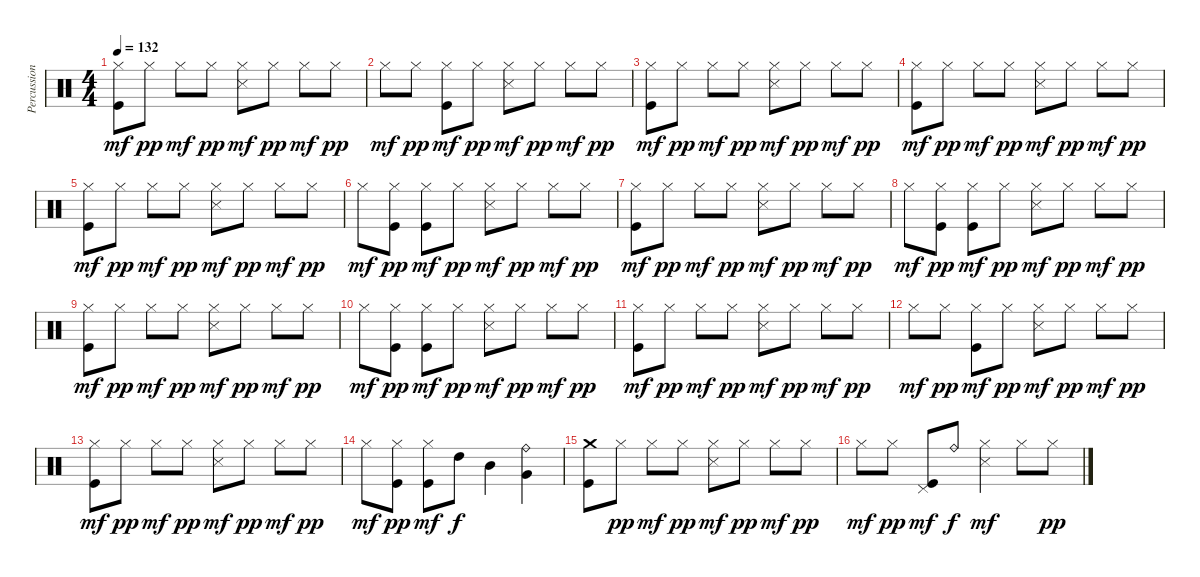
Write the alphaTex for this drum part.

\track ("Percussion" "Percussion") {instrument percussion}
\staff {score}
\articulation defaults
\ts (4 4)
\tempo 132
\clef neutral
\ks c
("Hi-Hat (closed)" "Kick (hit)").8{dy mf} "Hi-Hat (closed)".8{dy pp} "Hi-Hat (closed)".8{dy mf} "Hi-Hat (closed)".8{dy pp} ("Hi-Hat (closed)" "Snare (side stick) 3").8{dy mf} "Hi-Hat (closed)".8{dy pp} "Hi-Hat (closed)".8{dy mf} "Hi-Hat (closed)".8{dy pp} |
"Hi-Hat (closed)".8{dy mf} "Hi-Hat (closed)".8{dy pp} ("Hi-Hat (closed)" "Kick (hit)").8{dy mf} "Hi-Hat (closed)".8{dy pp} ("Hi-Hat (closed)" "Snare (side stick) 3").8{dy mf} "Hi-Hat (closed)".8{dy pp} "Hi-Hat (closed)".8{dy mf} "Hi-Hat (closed)".8{dy pp} |
("Hi-Hat (closed)" "Kick (hit)").8{dy mf} "Hi-Hat (closed)".8{dy pp} "Hi-Hat (closed)".8{dy mf} "Hi-Hat (closed)".8{dy pp} ("Hi-Hat (closed)" "Snare (side stick) 3").8{dy mf} "Hi-Hat (closed)".8{dy pp} "Hi-Hat (closed)".8{dy mf} "Hi-Hat (closed)".8{dy pp} |
("Hi-Hat (closed)" "Kick (hit)").8{dy mf} "Hi-Hat (closed)".8{dy pp} "Hi-Hat (closed)".8{dy mf} "Hi-Hat (closed)".8{dy pp} ("Hi-Hat (closed)" "Snare (side stick) 3").8{dy mf} "Hi-Hat (closed)".8{dy pp} "Hi-Hat (closed)".8{dy mf} "Hi-Hat (closed)".8{dy pp} |
("Hi-Hat (closed)" "Kick (hit)").8{dy mf} "Hi-Hat (closed)".8{dy pp} "Hi-Hat (closed)".8{dy mf} "Hi-Hat (closed)".8{dy pp} ("Hi-Hat (closed)" "Snare (side stick) 3").8{dy mf} "Hi-Hat (closed)".8{dy pp} "Hi-Hat (closed)".8{dy mf} "Hi-Hat (closed)".8{dy pp} |
"Hi-Hat (closed)".8{dy mf} ("Hi-Hat (closed)" "Kick (hit)").8{dy pp} ("Hi-Hat (closed)" "Kick (hit)").8{dy mf} "Hi-Hat (closed)".8{dy pp} ("Hi-Hat (closed)" "Snare (side stick) 3").8{dy mf} "Hi-Hat (closed)".8{dy pp} "Hi-Hat (closed)".8{dy mf} "Hi-Hat (closed)".8{dy pp} |
("Hi-Hat (closed)" "Kick (hit)").8{dy mf} "Hi-Hat (closed)".8{dy pp} "Hi-Hat (closed)".8{dy mf} "Hi-Hat (closed)".8{dy pp} ("Hi-Hat (closed)" "Snare (side stick) 3").8{dy mf} "Hi-Hat (closed)".8{dy pp} "Hi-Hat (closed)".8{dy mf} "Hi-Hat (closed)".8{dy pp} |
"Hi-Hat (closed)".8{dy mf} ("Hi-Hat (closed)" "Kick (hit)").8{dy pp} ("Hi-Hat (closed)" "Kick (hit)").8{dy mf} "Hi-Hat (closed)".8{dy pp} ("Hi-Hat (closed)" "Snare (side stick) 3").8{dy mf} "Hi-Hat (closed)".8{dy pp} "Hi-Hat (closed)".8{dy mf} "Hi-Hat (closed)".8{dy pp} |
("Hi-Hat (closed)" "Kick (hit)").8{dy mf} "Hi-Hat (closed)".8{dy pp} "Hi-Hat (closed)".8{dy mf} "Hi-Hat (closed)".8{dy pp} ("Hi-Hat (closed)" "Snare (side stick) 3").8{dy mf} "Hi-Hat (closed)".8{dy pp} "Hi-Hat (closed)".8{dy mf} "Hi-Hat (closed)".8{dy pp} |
"Hi-Hat (closed)".8{dy mf} ("Hi-Hat (closed)" "Kick (hit)").8{dy pp} ("Hi-Hat (closed)" "Kick (hit)").8{dy mf} "Hi-Hat (closed)".8{dy pp} ("Hi-Hat (closed)" "Snare (side stick) 3").8{dy mf} "Hi-Hat (closed)".8{dy pp} "Hi-Hat (closed)".8{dy mf} "Hi-Hat (closed)".8{dy pp} |
("Hi-Hat (closed)" "Kick (hit)").8{dy mf} "Hi-Hat (closed)".8{dy pp} "Hi-Hat (closed)".8{dy mf} "Hi-Hat (closed)".8{dy pp} ("Hi-Hat (closed)" "Snare (side stick) 3").8{dy mf} "Hi-Hat (closed)".8{dy pp} "Hi-Hat (closed)".8{dy mf} "Hi-Hat (closed)".8{dy pp} |
"Hi-Hat (closed)".8{dy mf} "Hi-Hat (closed)".8{dy pp} ("Hi-Hat (closed)" "Kick (hit)").8{dy mf} "Hi-Hat (closed)".8{dy pp} ("Hi-Hat (closed)" "Snare (side stick) 3").8{dy mf} "Hi-Hat (closed)".8{dy pp} "Hi-Hat (closed)".8{dy mf} "Hi-Hat (closed)".8{dy pp} |
("Hi-Hat (closed)" "Kick (hit)").8{dy mf} "Hi-Hat (closed)".8{dy pp} "Hi-Hat (closed)".8{dy mf} "Hi-Hat (closed)".8{dy pp} ("Hi-Hat (closed)" "Snare (side stick) 3").8{dy mf} "Hi-Hat (closed)".8{dy pp} "Hi-Hat (closed)".8{dy mf} "Hi-Hat (closed)".8{dy pp} |
"Hi-Hat (closed)".8{dy mf} ("Hi-Hat (closed)" "Kick (hit)").8{dy pp} ("Hi-Hat (closed)" "Kick (hit)").8{dy mf} "High Tom (hit)".8{dy f} "Mid Tom (hit)".4 ("Ride (bell)" "Very Low Tom (hit)").4 |
("Crash medium (hit)" "Kick (hit)").8 "Hi-Hat (closed)".8{dy pp} "Hi-Hat (closed)".8{dy mf} "Hi-Hat (closed)".8{dy pp} ("Hi-Hat (closed)" "Snare (side stick) 3").8{dy mf} "Hi-Hat (closed)".8{dy pp} "Hi-Hat (closed)".8{dy mf} "Hi-Hat (closed)".8{dy pp} |
"Hi-Hat (closed)".8{dy mf} "Hi-Hat (closed)".8{dy pp} ("Pedal Hi-Hat (hit)" "Kick (hit)").8{dy mf} "Ride (bell)".8{dy f} ("Hi-Hat (closed)" "Snare (side stick) 3").4{dy mf} "Hi-Hat (closed)".8 "Hi-Hat (closed)".8{dy pp}
